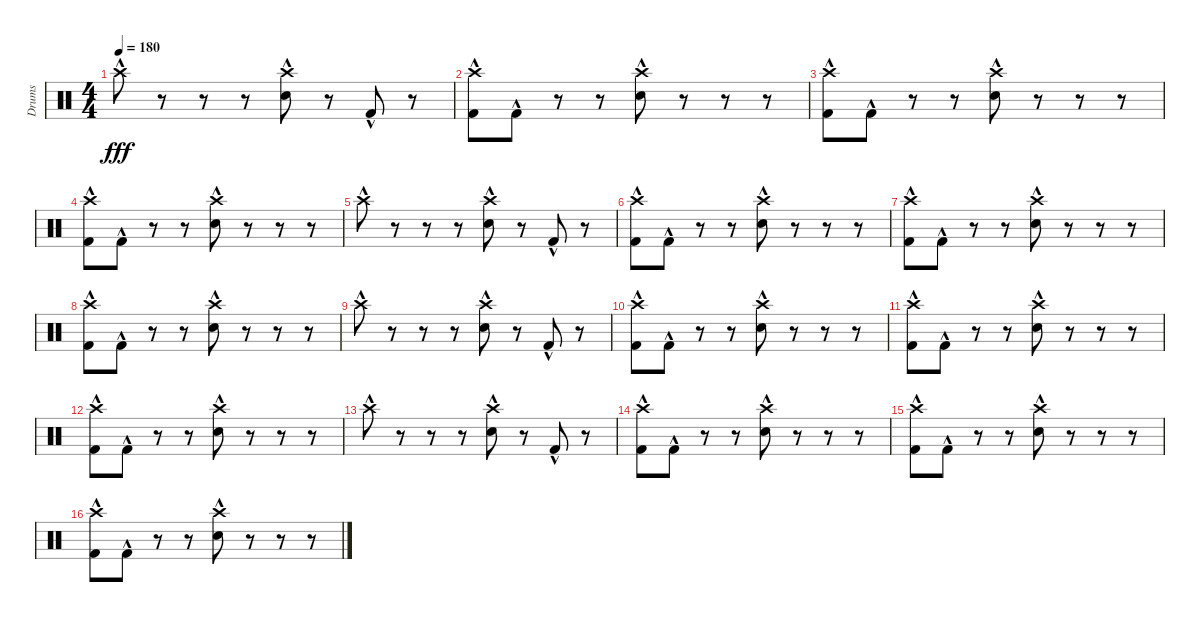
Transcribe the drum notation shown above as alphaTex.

\track ("Drums" "Drums") {instrument percussion}
\staff {score}
\articulation defaults
\ts (4 4)
\tempo 180
\clef neutral
\ks c "Crash high (hit)"{hac}.8{dy fff}
r.8 r.8 r.8 ("Crash high (hit)"{hac} "Snare (hit) 2"{hac}).8 r.8 "Kick (hit) 2"{hac}.8 r.8 |
("Crash high (hit)"{hac} "Kick (hit) 2"{hac}).8 "Kick (hit) 2"{hac}.8 r.8 r.8 ("Crash high (hit)"{hac} "Snare (hit) 2"{hac}).8 r.8 r.8 r.8 |
("Crash high (hit)"{hac} "Kick (hit) 2"{hac}).8 "Kick (hit) 2"{hac}.8 r.8 r.8 ("Crash high (hit)"{hac} "Snare (hit) 2"{hac}).8 r.8 r.8 r.8 |
("Crash high (hit)"{hac} "Kick (hit) 2"{hac}).8 "Kick (hit) 2"{hac}.8 r.8 r.8 ("Crash high (hit)"{hac} "Snare (hit) 2"{hac}).8 r.8 r.8 r.8 |
"Crash high (hit)"{hac}.8 r.8 r.8 r.8 ("Crash high (hit)"{hac} "Snare (hit) 2"{hac}).8 r.8 "Kick (hit) 2"{hac}.8 r.8 |
("Crash high (hit)"{hac} "Kick (hit) 2"{hac}).8 "Kick (hit) 2"{hac}.8 r.8 r.8 ("Crash high (hit)"{hac} "Snare (hit) 2"{hac}).8 r.8 r.8 r.8 |
("Crash high (hit)"{hac} "Kick (hit) 2"{hac}).8 "Kick (hit) 2"{hac}.8 r.8 r.8 ("Crash high (hit)"{hac} "Snare (hit) 2"{hac}).8 r.8 r.8 r.8 |
("Crash high (hit)"{hac} "Kick (hit) 2"{hac}).8 "Kick (hit) 2"{hac}.8 r.8 r.8 ("Crash high (hit)"{hac} "Snare (hit) 2"{hac}).8 r.8 r.8 r.8 |
"Crash high (hit)"{hac}.8 r.8 r.8 r.8 ("Crash high (hit)"{hac} "Snare (hit) 2"{hac}).8 r.8 "Kick (hit) 2"{hac}.8 r.8 |
("Crash high (hit)"{hac} "Kick (hit) 2"{hac}).8 "Kick (hit) 2"{hac}.8 r.8 r.8 ("Crash high (hit)"{hac} "Snare (hit) 2"{hac}).8 r.8 r.8 r.8 |
("Crash high (hit)"{hac} "Kick (hit) 2"{hac}).8 "Kick (hit) 2"{hac}.8 r.8 r.8 ("Crash high (hit)"{hac} "Snare (hit) 2"{hac}).8 r.8 r.8 r.8 |
("Crash high (hit)"{hac} "Kick (hit) 2"{hac}).8 "Kick (hit) 2"{hac}.8 r.8 r.8 ("Crash high (hit)"{hac} "Snare (hit) 2"{hac}).8 r.8 r.8 r.8 |
"Crash high (hit)"{hac}.8 r.8 r.8 r.8 ("Crash high (hit)"{hac} "Snare (hit) 2"{hac}).8 r.8 "Kick (hit) 2"{hac}.8 r.8 |
("Crash high (hit)"{hac} "Kick (hit) 2"{hac}).8 "Kick (hit) 2"{hac}.8 r.8 r.8 ("Crash high (hit)"{hac} "Snare (hit) 2"{hac}).8 r.8 r.8 r.8 |
("Crash high (hit)"{hac} "Kick (hit) 2"{hac}).8 "Kick (hit) 2"{hac}.8 r.8 r.8 ("Crash high (hit)"{hac} "Snare (hit) 2"{hac}).8 r.8 r.8 r.8 |
("Crash high (hit)"{hac} "Kick (hit) 2"{hac}).8 "Kick (hit) 2"{hac}.8 r.8 r.8 ("Crash high (hit)"{hac} "Snare (hit) 2"{hac}).8 r.8 r.8 r.8
